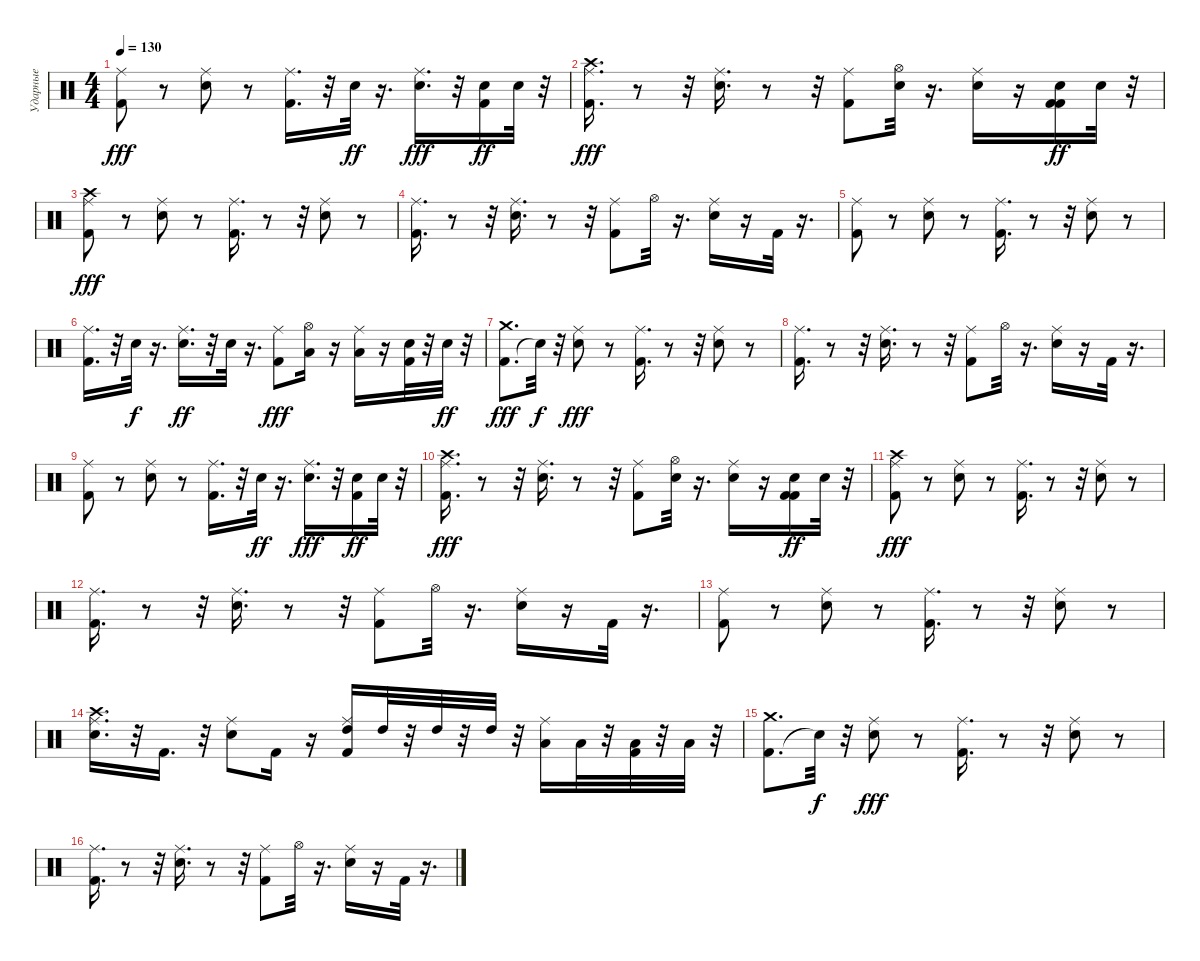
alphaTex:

\track ("Ударные" "Ударные") {instrument percussion}
\staff {score}
\articulation defaults
\ts (4 4)
\tempo 130
\clef neutral
\ks c
("Kick (hit) 2" "Ride (middle)").8{dy fff} r.8 ("Electric Snare (hit)" "Ride (middle)").8 r.8 ("Kick (hit) 2" "Ride (middle)").16{d} r.32 "Electric Snare (hit)".32{dy ff} r.16{d} ("Electric Snare (hit)" "Ride (middle)").16{d dy fff} r.32 ("Kick (hit) 2" "Electric Snare (hit)").16{dy ff} "Electric Snare (hit)".32 r.32 |
("Crash high (hit)" "Ride (middle)" "Kick (hit) 2").16{d dy fff} r.8 r.32 ("Electric Snare (hit)" "Ride (middle)").16{d} r.8 r.32 ("Kick (hit) 2" "Ride (middle)").8 ("Electric Snare (hit)" "Hi-Hat (open)").32 r.16{d} ("Electric Snare (hit)" "Ride (middle)").16 r.16 ("Kick (hit) 2" "Kick (hit) 2" "Electric Snare (hit)").16{dy ff} "Electric Snare (hit)".32 r.32 |
("Kick (hit) 2" "Crash high (hit)" "Ride (middle)").8{dy fff} r.8 ("Electric Snare (hit)" "Ride (middle)").8 r.8 ("Kick (hit) 2" "Ride (middle)").16{d} r.8 r.32 ("Electric Snare (hit)" "Ride (middle)").8 r.8 |
("Ride (middle)" "Kick (hit) 2").16{d} r.8 r.32 ("Electric Snare (hit)" "Ride (middle)").16{d} r.8 r.32 ("Kick (hit) 2" "Ride (middle)").8 "Hi-Hat (open)".32 r.16{d} ("Electric Snare (hit)" "Ride (middle)").16 r.16 "Kick (hit) 2".32 r.16{d} |
("Kick (hit) 2" "Ride (middle)").8 r.8 ("Electric Snare (hit)" "Ride (middle)").8 r.8 ("Kick (hit) 2" "Ride (middle)").16{d} r.8 r.32 ("Electric Snare (hit)" "Ride (middle)").8 r.8 |
("Ride (middle)" "Kick (hit) 2").16{d} r.32 "Electric Snare (hit)".32{dy f} r.16{d} ("Ride (middle)" "Electric Snare (hit)").16{d dy ff} r.32 "Electric Snare (hit)".32 r.16{d} ("Kick (hit) 2" "Ride (middle)").8{dy fff} ("Low Tom (hit)" "Hi-Hat (open)").16 r.16 ("Low Tom (hit)" "Ride (middle)").16 r.16 ("Kick (hit) 2" "Snare (hit) 2").32 r.32 "Snare (hit) 2".32{dy ff} r.32 |
("Kick (hit) 2" "Crash medium (hit)").8{d dy fff} "Snare (hit)"{t}.32{dy f} r.32 ("Electric Snare (hit)" "Ride (middle)").8{dy fff} r.8 ("Kick (hit) 2" "Ride (middle)").16{d} r.8 r.32 ("Electric Snare (hit)" "Ride (middle)").8 r.8 |
("Ride (middle)" "Kick (hit) 2").16{d} r.8 r.32 ("Electric Snare (hit)" "Ride (middle)").16{d} r.8 r.32 ("Kick (hit) 2" "Ride (middle)").8 "Hi-Hat (open)".32 r.16{d} ("Electric Snare (hit)" "Ride (middle)").16 r.16 "Kick (hit) 2".32 r.16{d} |
("Kick (hit) 2" "Ride (middle)").8 r.8 ("Electric Snare (hit)" "Ride (middle)").8 r.8 ("Kick (hit) 2" "Ride (middle)").16{d} r.32 "Electric Snare (hit)".32{dy ff} r.16{d} ("Electric Snare (hit)" "Ride (middle)").16{d dy fff} r.32 ("Kick (hit) 2" "Electric Snare (hit)").16{dy ff} "Electric Snare (hit)".32 r.32 |
("Crash high (hit)" "Ride (middle)" "Kick (hit) 2").16{d dy fff} r.8 r.32 ("Electric Snare (hit)" "Ride (middle)").16{d} r.8 r.32 ("Kick (hit) 2" "Ride (middle)").8 ("Electric Snare (hit)" "Hi-Hat (open)").32 r.16{d} ("Electric Snare (hit)" "Ride (middle)").16 r.16 ("Kick (hit) 2" "Kick (hit) 2" "Electric Snare (hit)").16{dy ff} "Electric Snare (hit)".32 r.32 |
("Kick (hit) 2" "Crash high (hit)" "Ride (middle)").8{dy fff} r.8 ("Electric Snare (hit)" "Ride (middle)").8 r.8 ("Kick (hit) 2" "Ride (middle)").16{d} r.8 r.32 ("Electric Snare (hit)" "Ride (middle)").8 r.8 |
("Ride (middle)" "Kick (hit) 2").16{d} r.8 r.32 ("Electric Snare (hit)" "Ride (middle)").16{d} r.8 r.32 ("Kick (hit) 2" "Ride (middle)").8 "Hi-Hat (open)".32 r.16{d} ("Electric Snare (hit)" "Ride (middle)").16 r.16 "Kick (hit) 2".32 r.16{d} |
("Kick (hit) 2" "Ride (middle)").8 r.8 ("Electric Snare (hit)" "Ride (middle)").8 r.8 ("Kick (hit) 2" "Ride (middle)").16{d} r.8 r.32 ("Electric Snare (hit)" "Ride (middle)").8 r.8 |
("Electric Snare (hit)" "Crash high (hit)" "Ride (middle)").16{d} r.32 "Kick (hit) 2".16{d} r.32 ("Electric Snare (hit)" "Ride (middle)").8 "Kick (hit) 2".16 r.16 ("Kick (hit) 2" "Ride (middle)" "High Tom (hit)").16 "High Tom (hit)".32 r.32 "High Tom (hit)".32 r.32 "High Tom (hit)".32 r.32 ("Low Tom (hit)" "Ride (middle)").16 "Low Tom (hit)".32 r.32 ("Kick (hit) 2" "Low Tom (hit)").32 r.32 "Low Tom (hit)".32 r.32 |
("Kick (hit) 2" "Crash medium (hit)").8{d} "Snare (hit)"{t}.32{dy f} r.32 ("Electric Snare (hit)" "Ride (middle)").8{dy fff} r.8 ("Kick (hit) 2" "Ride (middle)").16{d} r.8 r.32 ("Electric Snare (hit)" "Ride (middle)").8 r.8 |
("Ride (middle)" "Kick (hit) 2").16{d} r.8 r.32 ("Electric Snare (hit)" "Ride (middle)").16{d} r.8 r.32 ("Kick (hit) 2" "Ride (middle)").8 "Hi-Hat (open)".32 r.16{d} ("Electric Snare (hit)" "Ride (middle)").16 r.16 "Kick (hit) 2".32 r.16{d}
